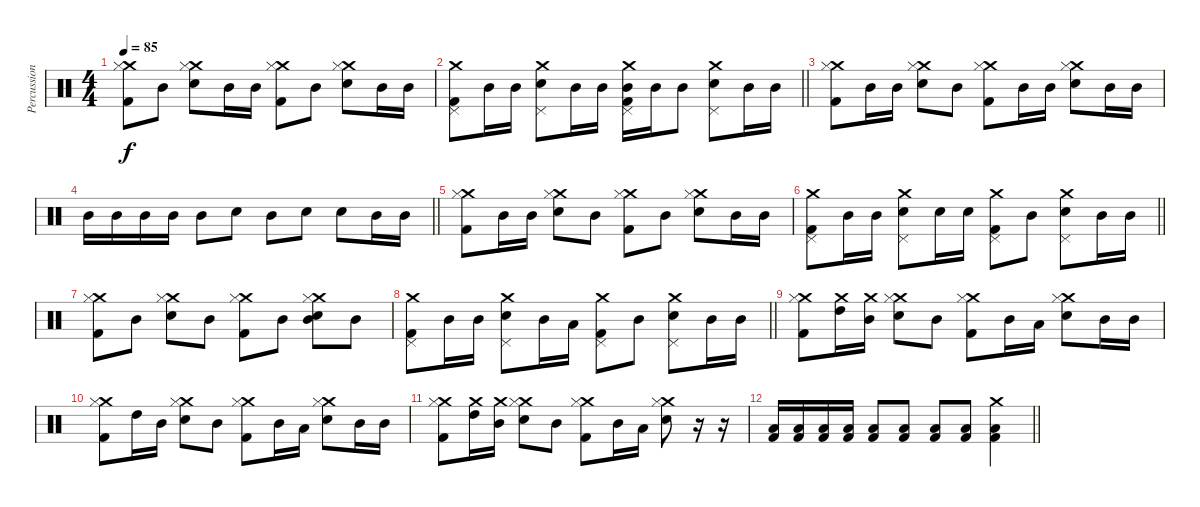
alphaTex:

\track ("Percussion" "Percussion") {instrument percussion}
\staff {score}
\articulation defaults
\ts (4 4)
\tempo 85
\clef neutral
\ks c
("Crash medium (hit)" "Hi-Hat (closed)" "Kick (hit) 2").8{dy f} "Mid Tom (hit)".8 ("Crash medium (hit)" "Hi-Hat (closed)" "Snare (hit) 2").8 "Mid Tom (hit)".16 "Mid Tom (hit)".16 ("Crash medium (hit)" "Hi-Hat (closed)" "Kick (hit) 2").8 "Mid Tom (hit)".8 ("Crash medium (hit)" "Hi-Hat (closed)" "Snare (hit) 2").8 "Mid Tom (hit)".16 "Mid Tom (hit)".16 |
\barLineRight lightlight
("Crash medium (hit)" "Pedal Hi-Hat (hit)" "Kick (hit) 2").8 "Mid Tom (hit)".16 "Mid Tom (hit)".16 ("Crash medium (hit)" "Pedal Hi-Hat (hit)" "Snare (hit) 2").8 "Mid Tom (hit)".16 "Mid Tom (hit)".16 ("Crash medium (hit)" "Mid Tom (hit)" "Pedal Hi-Hat (hit)" "Kick (hit) 2").16 "Mid Tom (hit)".16 "Mid Tom (hit)".8 ("Crash medium (hit)" "Pedal Hi-Hat (hit)" "Snare (hit) 2").8 "Mid Tom (hit)".16 "Mid Tom (hit)".16 |
("Crash medium (hit)" "Hi-Hat (closed)" "Kick (hit) 2").8 "Mid Tom (hit)".16 "Mid Tom (hit)".16 ("Crash medium (hit)" "Hi-Hat (closed)" "Snare (hit) 2").8 "Mid Tom (hit)".8 ("Crash medium (hit)" "Hi-Hat (closed)" "Kick (hit) 2").8 "Mid Tom (hit)".16 "Mid Tom (hit)".16 ("Crash medium (hit)" "Hi-Hat (closed)" "Snare (hit) 2").8 "Mid Tom (hit)".16 "Mid Tom (hit)".16 |
\barLineRight lightlight "Mid Tom (hit)".16 "Mid Tom (hit)".16 "Mid Tom (hit)".16 "Mid Tom (hit)".16 "Mid Tom (hit)".8 "Snare (hit) 2".8 "Mid Tom (hit)".8 "Snare (hit) 2".8 "Snare (hit) 2".8 "Mid Tom (hit)".16 "Mid Tom (hit)".16
|
("Crash medium (hit)" "Hi-Hat (closed)" "Kick (hit) 2").8 "Mid Tom (hit)".16 "Mid Tom (hit)".16 ("Crash medium (hit)" "Hi-Hat (closed)" "Snare (hit) 2").8 "Mid Tom (hit)".8 ("Crash medium (hit)" "Hi-Hat (closed)" "Kick (hit) 2").8 "Mid Tom (hit)".8 ("Crash medium (hit)" "Hi-Hat (closed)" "Snare (hit) 2").8 "Mid Tom (hit)".16 "Mid Tom (hit)".16 |
\barLineRight lightlight
("Crash medium (hit)" "Pedal Hi-Hat (hit)" "Kick (hit) 2").8 "Mid Tom (hit)".16 "Mid Tom (hit)".16 ("Crash medium (hit)" "Pedal Hi-Hat (hit)" "Snare (hit) 2").8 "Snare (hit) 2".16 "Snare (hit) 2".16 ("Crash medium (hit)" "Pedal Hi-Hat (hit)" "Kick (hit) 2").8 "Mid Tom (hit)".8 ("Crash medium (hit)" "Pedal Hi-Hat (hit)" "Snare (hit) 2").8 "Mid Tom (hit)".16 "Mid Tom (hit)".16 |
("Crash medium (hit)" "Hi-Hat (closed)" "Kick (hit) 2").8 "Mid Tom (hit)".8 ("Crash medium (hit)" "Hi-Hat (closed)" "Snare (hit) 2").8 "Mid Tom (hit)".8 ("Crash medium (hit)" "Hi-Hat (closed)" "Kick (hit) 2").8 "Mid Tom (hit)".8 ("Crash medium (hit)" "Mid Tom (hit)" "Hi-Hat (closed)" "Snare (hit) 2").8 "Mid Tom (hit)".8 |
\barLineRight lightlight
("Crash medium (hit)" "Pedal Hi-Hat (hit)" "Kick (hit) 2").8 "Mid Tom (hit)".16 "Mid Tom (hit)".16 ("Crash medium (hit)" "Pedal Hi-Hat (hit)" "Snare (hit) 2").8 "Mid Tom (hit)".16 "Low Tom (hit)".16 ("Crash medium (hit)" "Pedal Hi-Hat (hit)" "Kick (hit) 2").8 "Mid Tom (hit)".8 ("Crash medium (hit)" "Pedal Hi-Hat (hit)" "Snare (hit) 2").8 "Mid Tom (hit)".16 "Mid Tom (hit)".16 |
("Crash medium (hit)" "Hi-Hat (closed)" "Kick (hit) 2").8 ("Crash medium (hit)" "High Tom (hit)").16 ("Crash medium (hit)" "Mid Tom (hit)").16 ("Crash medium (hit)" "Hi-Hat (closed)" "Snare (hit) 2").8 "Mid Tom (hit)".8 ("Crash medium (hit)" "Hi-Hat (closed)" "Kick (hit) 2").8 "Mid Tom (hit)".16 "Low Tom (hit)".16 ("Crash medium (hit)" "Hi-Hat (closed)" "Snare (hit) 2").8 "Mid Tom (hit)".16 "Mid Tom (hit)".16 |
("Crash medium (hit)" "Hi-Hat (closed)" "Kick (hit) 2").8 "High Tom (hit)".16 "Mid Tom (hit)".16 ("Crash medium (hit)" "Hi-Hat (closed)" "Snare (hit) 2").8 "Mid Tom (hit)".8 ("Crash medium (hit)" "Hi-Hat (closed)" "Kick (hit) 2").8 "Mid Tom (hit)".16 "Low Tom (hit)".16 ("Crash medium (hit)" "Hi-Hat (closed)" "Snare (hit) 2").8 "Mid Tom (hit)".16 "Mid Tom (hit)".16 |
("Crash medium (hit)" "Hi-Hat (closed)" "Kick (hit) 2").8 ("Crash medium (hit)" "High Tom (hit)").16 ("Crash medium (hit)" "Mid Tom (hit)").16 ("Crash medium (hit)" "Hi-Hat (closed)" "Snare (hit) 2").8 "Mid Tom (hit)".8 ("Crash medium (hit)" "Hi-Hat (closed)" "Kick (hit) 2").8 "Mid Tom (hit)".16 "Low Tom (hit)".16 ("Crash medium (hit)" "Hi-Hat (closed)" "Snare (hit) 2").8 r.16 r.16 |
\barLineRight lightlight
("Low Tom (hit)" "Kick (hit) 2").16 ("Low Tom (hit)" "Kick (hit) 2").16 ("Low Tom (hit)" "Kick (hit) 2").16 ("Low Tom (hit)" "Kick (hit) 2").16 ("Low Tom (hit)" "Kick (hit) 2").8 ("Low Tom (hit)" "Kick (hit) 2").8 ("Low Tom (hit)" "Kick (hit) 2").8 ("Low Tom (hit)" "Kick (hit) 2").8 ("Crash medium (hit)" "Low Tom (hit)" "Kick (hit) 2").4
